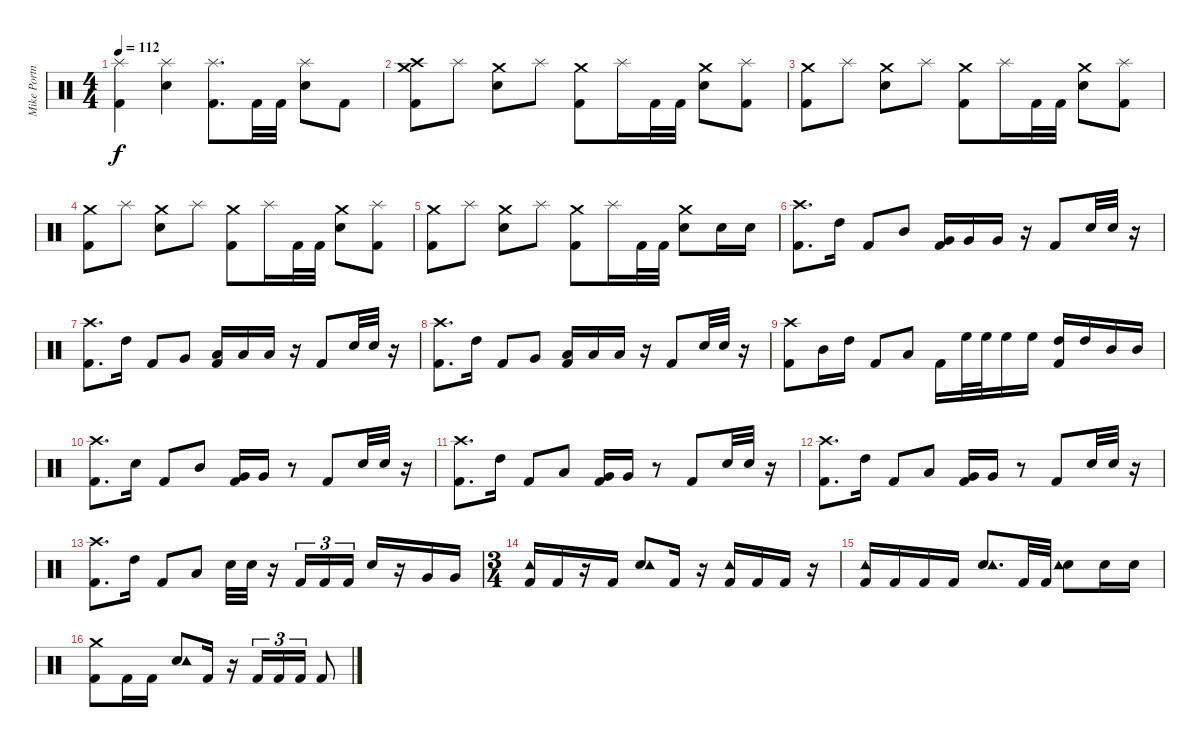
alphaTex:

\track ("Mike Portnoy" "Mike Portn") {instrument percussion}
\staff {score}
\articulation defaults
\ts (4 4)
\tempo 112
\clef neutral
\ks c
("Kick (hit) 2" "Splash (hit)").4{dy f} ("Electric Snare (hit)" "Splash (hit)").4 ("Kick (hit) 2" "Splash (hit)").8{d} "Kick (hit) 2".32 "Kick (hit) 2".32 ("Electric Snare (hit)" "Splash (hit)").8 "Kick (hit) 2".8 |
("Kick (hit) 2" "Crash high (hit)" "Crash medium (hit)").8 "Splash (hit)".8 ("Electric Snare (hit)" "Crash medium (hit)").8 "Splash (hit)".8 ("Kick (hit) 2" "Crash medium (hit)").8 "Splash (hit)".16 "Kick (hit) 2".32 "Kick (hit) 2".32 ("Electric Snare (hit)" "Crash medium (hit)").8 ("Kick (hit) 2" "Splash (hit)").8 |
("Kick (hit) 2" "Crash medium (hit)").8 "Splash (hit)".8 ("Electric Snare (hit)" "Crash medium (hit)").8 "Splash (hit)".8 ("Kick (hit) 2" "Crash medium (hit)").8 "Splash (hit)".16 "Kick (hit) 2".32 "Kick (hit) 2".32 ("Electric Snare (hit)" "Crash medium (hit)").8 ("Kick (hit) 2" "Splash (hit)").8 |
("Kick (hit) 2" "Crash medium (hit)").8 "Splash (hit)".8 ("Electric Snare (hit)" "Crash medium (hit)").8 "Splash (hit)".8 ("Kick (hit) 2" "Crash medium (hit)").8 "Splash (hit)".16 "Kick (hit) 2".32 "Kick (hit) 2".32 ("Electric Snare (hit)" "Crash medium (hit)").8 ("Kick (hit) 2" "Splash (hit)").8 |
("Kick (hit) 2" "Crash medium (hit)").8 "Splash (hit)".8 ("Electric Snare (hit)" "Crash medium (hit)").8 "Splash (hit)".8 ("Kick (hit) 2" "Crash medium (hit)").8 "Splash (hit)".16 "Kick (hit) 2".32 "Kick (hit) 2".32 ("Electric Snare (hit)" "Crash medium (hit)").8 "Electric Snare (hit)".16 "Electric Snare (hit)".16 |
("Kick (hit) 2" "Crash high (hit)").8{d} "High Tom (hit)".16 "Kick (hit) 2".8 "Mid Tom (hit)".8 ("Kick (hit) 2" "Very Low Tom (hit)").16 "Very Low Tom (hit)".16 "Very Low Tom (hit)".16 r.16 "Kick (hit) 2".8 "Electric Snare (hit)".32 "Electric Snare (hit)".32 r.16 |
("Kick (hit) 2" "Crash high (hit)").8{d} "High Tom (hit)".16 "Kick (hit) 2".8 "Very Low Tom (hit)".8 ("Kick (hit) 2" "Low Floor Tom (hit)").16 "Low Floor Tom (hit)".16 "Low Floor Tom (hit)".16 r.16 "Kick (hit) 2".8 "Electric Snare (hit)".32 "Electric Snare (hit)".32 r.16 |
("Kick (hit) 2" "Crash high (hit)").8{d} "High Tom (hit)".16 "Kick (hit) 2".8 "Very Low Tom (hit)".8 ("Kick (hit) 2" "Low Floor Tom (hit)").16 "Low Floor Tom (hit)".16 "Low Floor Tom (hit)".16 r.16 "Kick (hit) 2".8 "Electric Snare (hit)".32 "Electric Snare (hit)".32 r.16 |
("Kick (hit) 2" "Crash high (hit)").8 "Mid Tom (hit)".16 "High Tom (hit)".16 "Kick (hit) 2".8 "Low Tom (hit)".8 "Kick (hit) 2".16 "High Floor Tom (hit)".32 "High Floor Tom (hit)".32 "High Floor Tom (hit)".16 "High Floor Tom (hit)".16 ("Kick (hit) 2" "High Tom (hit)").16 "High Tom (hit)".16 "Mid Tom (hit)".16 "Mid Tom (hit)".16 |
("Kick (hit) 2" "Crash high (hit)").8{d} "Electric Snare (hit)".16 "Kick (hit) 2".8 "Mid Tom (hit)".8 ("Kick (hit) 2" "Very Low Tom (hit)").16 "Very Low Tom (hit)".16 r.8 "Kick (hit) 2".8 "Electric Snare (hit)".32 "Electric Snare (hit)".32 r.16 |
("Kick (hit) 2" "Crash high (hit)").8{d} "High Tom (hit)".16 "Kick (hit) 2".8 "Low Tom (hit)".8 ("Kick (hit) 2" "Very Low Tom (hit)").16 "Very Low Tom (hit)".16 r.8 "Kick (hit) 2".8 "Electric Snare (hit)".32 "Electric Snare (hit)".32 r.16 |
("Kick (hit) 2" "Crash high (hit)").8{d} "High Tom (hit)".16 "Kick (hit) 2".8 "Low Tom (hit)".8 ("Kick (hit) 2" "Very Low Tom (hit)").16 "Very Low Tom (hit)".16 r.8 "Kick (hit) 2".8 "Electric Snare (hit)".32 "Electric Snare (hit)".32 r.16 |
("Kick (hit) 2" "Crash high (hit)").8{d} "High Tom (hit)".16 "Kick (hit) 2".8 "Low Tom (hit)".8 "Electric Snare (hit)".32 "Electric Snare (hit)".32 r.16 "Kick (hit) 2".16{tu (3 2)} "Kick (hit) 2".16{tu (3 2)} "Kick (hit) 2".16{tu (3 2)} "Electric Snare (hit)".16 r.16 "Very Low Tom (hit)".16 "Very Low Tom (hit)".16 |
\ts (3 4)
("Kick (hit) 2" "Tambourine (hit)").16 "Kick (hit) 2".16 r.16 "Kick (hit) 2".16 ("Electric Snare (hit)" "Tambourine (hit)").8 "Kick (hit) 2".16 r.16 ("Kick (hit) 2" "Tambourine (hit)").16 "Kick (hit) 2".16 "Kick (hit) 2".16 r.16 |
("Kick (hit) 2" "Tambourine (hit)").16 "Kick (hit) 2".16 "Kick (hit) 2".16 "Kick (hit) 2".16 ("Electric Snare (hit)" "Tambourine (hit)").8{d} "Kick (hit) 2".32 "Kick (hit) 2".32 ("Electric Snare (hit)" "Tambourine (hit)").8 "Electric Snare (hit)".16 "Electric Snare (hit)".16 |
("Kick (hit) 2" "Crash medium (hit)").8 "Kick (hit) 2".16 "Kick (hit) 2".16 ("Electric Snare (hit)" "Tambourine (hit)").8 "Kick (hit) 2".16 r.16 "Kick (hit) 2".16{tu (3 2)} "Kick (hit) 2".16{tu (3 2)} "Kick (hit) 2".16{tu (3 2)} "Kick (hit) 2".8
